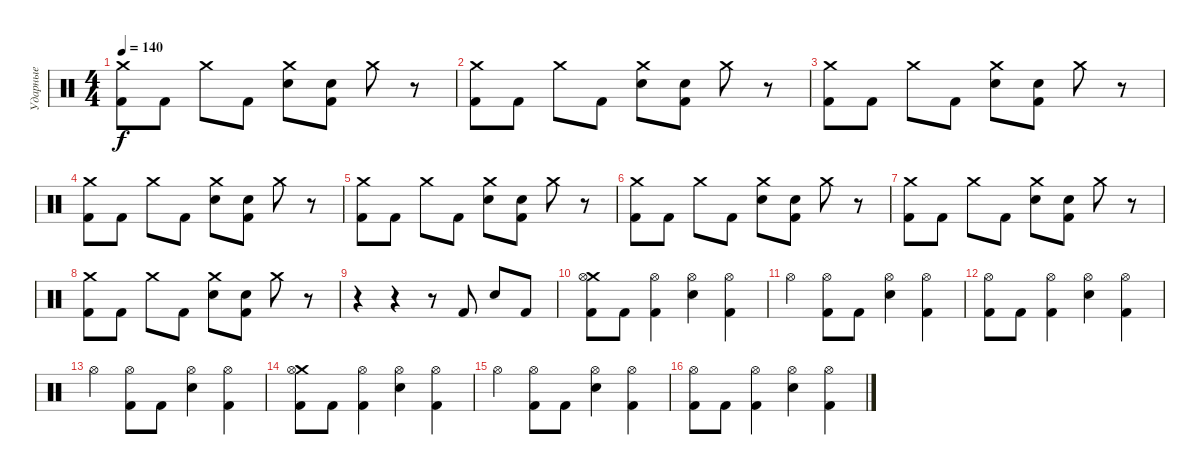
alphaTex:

\track ("Ударные" "Ударные") {instrument percussion}
\staff {score}
\articulation defaults
\ts (4 4)
\tempo 140
\clef neutral
\ks c
("Crash medium (hit)" "Kick (hit) 2").8{dy f} "Kick (hit) 2".8 "Crash medium (hit)".8 "Kick (hit) 2".8 ("Crash medium (hit)" "Electric Snare (hit)").8 ("Snare (hit)" "Kick (hit) 2").8 "Crash medium (hit)".8 r.8 |
("Crash medium (hit)" "Kick (hit) 2").8 "Kick (hit) 2".8 "Crash medium (hit)".8 "Kick (hit) 2".8 ("Crash medium (hit)" "Electric Snare (hit)").8 ("Snare (hit)" "Kick (hit) 2").8 "Crash medium (hit)".8 r.8 |
("Crash medium (hit)" "Kick (hit) 2").8 "Kick (hit) 2".8 "Crash medium (hit)".8 "Kick (hit) 2".8 ("Crash medium (hit)" "Electric Snare (hit)").8 ("Snare (hit)" "Kick (hit) 2").8 "Crash medium (hit)".8 r.8 |
("Crash medium (hit)" "Kick (hit) 2").8 "Kick (hit) 2".8 "Crash medium (hit)".8 "Kick (hit) 2".8 ("Crash medium (hit)" "Electric Snare (hit)").8 ("Snare (hit)" "Kick (hit) 2").8 "Crash medium (hit)".8 r.8 |
("Crash medium (hit)" "Kick (hit) 2").8 "Kick (hit) 2".8 "Crash medium (hit)".8 "Kick (hit) 2".8 ("Crash medium (hit)" "Electric Snare (hit)").8 ("Snare (hit)" "Kick (hit) 2").8 "Crash medium (hit)".8 r.8 |
("Crash medium (hit)" "Kick (hit) 2").8 "Kick (hit) 2".8 "Crash medium (hit)".8 "Kick (hit) 2".8 ("Crash medium (hit)" "Electric Snare (hit)").8 ("Snare (hit)" "Kick (hit) 2").8 "Crash medium (hit)".8 r.8 |
("Crash medium (hit)" "Kick (hit) 2").8 "Kick (hit) 2".8 "Crash medium (hit)".8 "Kick (hit) 2".8 ("Crash medium (hit)" "Electric Snare (hit)").8 ("Snare (hit)" "Kick (hit) 2").8 "Crash medium (hit)".8 r.8 |
("Crash medium (hit)" "Kick (hit) 2").8 "Kick (hit) 2".8 "Crash medium (hit)".8 "Kick (hit) 2".8 ("Crash medium (hit)" "Electric Snare (hit)").8 ("Snare (hit)" "Kick (hit) 2").8 "Crash medium (hit)".8 r.8 |
r.4 r.4 r.8 "Kick (hit) 2".8 "Electric Snare (hit)".8 "Kick (hit) 2".8 |
("Crash medium (hit)" "Hi-Hat (open)" "Kick (hit) 2").8 "Kick (hit) 2".8 ("Hi-Hat (open)" "Kick (hit) 2").4 ("Hi-Hat (open)" "Electric Snare (hit)").4 ("Hi-Hat (open)" "Kick (hit) 2").4 |
"Hi-Hat (open)".4 ("Hi-Hat (open)" "Kick (hit) 2").8 "Kick (hit) 2".8 ("Hi-Hat (open)" "Electric Snare (hit)").4 ("Hi-Hat (open)" "Kick (hit) 2").4 |
("Hi-Hat (open)" "Kick (hit) 2").8 "Kick (hit) 2".8 ("Hi-Hat (open)" "Kick (hit) 2").4 ("Hi-Hat (open)" "Electric Snare (hit)").4 ("Hi-Hat (open)" "Kick (hit) 2").4 |
"Hi-Hat (open)".4 ("Hi-Hat (open)" "Kick (hit) 2").8 "Kick (hit) 2".8 ("Hi-Hat (open)" "Electric Snare (hit)").4 ("Hi-Hat (open)" "Kick (hit) 2").4 |
("Crash medium (hit)" "Hi-Hat (open)" "Kick (hit) 2").8 "Kick (hit) 2".8 ("Hi-Hat (open)" "Kick (hit) 2").4 ("Hi-Hat (open)" "Electric Snare (hit)").4 ("Hi-Hat (open)" "Kick (hit) 2").4 |
"Hi-Hat (open)".4 ("Hi-Hat (open)" "Kick (hit) 2").8 "Kick (hit) 2".8 ("Hi-Hat (open)" "Electric Snare (hit)").4 ("Hi-Hat (open)" "Kick (hit) 2").4 |
("Hi-Hat (open)" "Kick (hit) 2").8 "Kick (hit) 2".8 ("Hi-Hat (open)" "Kick (hit) 2").4 ("Hi-Hat (open)" "Electric Snare (hit)").4 ("Hi-Hat (open)" "Kick (hit) 2").4
